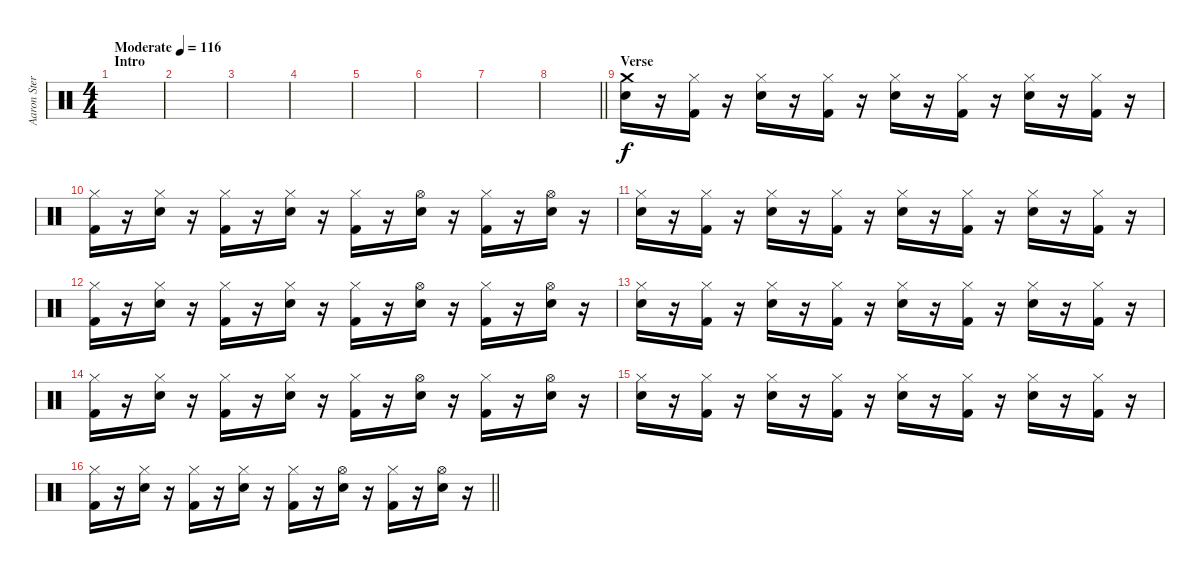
\track ("Aaron Stern" "Aaron Ster") {instrument percussion}
\staff {score}
\articulation defaults
\ts (4 4)
\section ("" "Intro")
\tempo (116 "Moderate")
\clef neutral
\ks c
|
|
|
|
|
|
|
\barLineRight lightlight
|
\section ("" "Verse")
("Crash medium (hit)" "Snare (hit) 2").16 r.16 ("Hi-Hat (closed)" "Kick (hit) 2").16 r.16 ("Hi-Hat (closed)" "Snare (hit) 2").16 r.16 ("Hi-Hat (closed)" "Kick (hit) 2").16 r.16 ("Hi-Hat (closed)" "Snare (hit) 2").16 r.16 ("Hi-Hat (closed)" "Kick (hit) 2").16 r.16 ("Hi-Hat (closed)" "Snare (hit) 2").16 r.16 ("Hi-Hat (closed)" "Kick (hit) 2").16 r.16 |
("Hi-Hat (closed)" "Kick (hit) 2").16 r.16 ("Hi-Hat (closed)" "Snare (hit) 2").16 r.16 ("Hi-Hat (closed)" "Kick (hit) 2").16 r.16 ("Hi-Hat (closed)" "Snare (hit) 2").16 r.16 ("Hi-Hat (closed)" "Kick (hit) 2").16 r.16 ("Hi-Hat (open)" "Snare (hit) 2").16 r.16 ("Hi-Hat (closed)" "Kick (hit) 2").16 r.16 ("Hi-Hat (open)" "Snare (hit) 2").16 r.16 |
("Hi-Hat (closed)" "Snare (hit) 2").16 r.16 ("Hi-Hat (closed)" "Kick (hit) 2").16 r.16 ("Hi-Hat (closed)" "Snare (hit) 2").16 r.16 ("Hi-Hat (closed)" "Kick (hit) 2").16 r.16 ("Hi-Hat (closed)" "Snare (hit) 2").16 r.16 ("Hi-Hat (closed)" "Kick (hit) 2").16 r.16 ("Hi-Hat (closed)" "Snare (hit) 2").16 r.16 ("Hi-Hat (closed)" "Kick (hit) 2").16 r.16 |
("Hi-Hat (closed)" "Kick (hit) 2").16 r.16 ("Hi-Hat (closed)" "Snare (hit) 2").16 r.16 ("Hi-Hat (closed)" "Kick (hit) 2").16 r.16 ("Hi-Hat (closed)" "Snare (hit) 2").16 r.16 ("Hi-Hat (closed)" "Kick (hit) 2").16 r.16 ("Hi-Hat (open)" "Snare (hit) 2").16 r.16 ("Hi-Hat (closed)" "Kick (hit) 2").16 r.16 ("Hi-Hat (open)" "Snare (hit) 2").16 r.16 |
("Hi-Hat (closed)" "Snare (hit) 2").16 r.16 ("Hi-Hat (closed)" "Kick (hit) 2").16 r.16 ("Hi-Hat (closed)" "Snare (hit) 2").16 r.16 ("Hi-Hat (closed)" "Kick (hit) 2").16 r.16 ("Hi-Hat (closed)" "Snare (hit) 2").16 r.16 ("Hi-Hat (closed)" "Kick (hit) 2").16 r.16 ("Hi-Hat (closed)" "Snare (hit) 2").16 r.16 ("Hi-Hat (closed)" "Kick (hit) 2").16 r.16 |
("Hi-Hat (closed)" "Kick (hit) 2").16 r.16 ("Hi-Hat (closed)" "Snare (hit) 2").16 r.16 ("Hi-Hat (closed)" "Kick (hit) 2").16 r.16 ("Hi-Hat (closed)" "Snare (hit) 2").16 r.16 ("Hi-Hat (closed)" "Kick (hit) 2").16 r.16 ("Hi-Hat (open)" "Snare (hit) 2").16 r.16 ("Hi-Hat (closed)" "Kick (hit) 2").16 r.16 ("Hi-Hat (open)" "Snare (hit) 2").16 r.16 |
("Hi-Hat (closed)" "Snare (hit) 2").16 r.16 ("Hi-Hat (closed)" "Kick (hit) 2").16 r.16 ("Hi-Hat (closed)" "Snare (hit) 2").16 r.16 ("Hi-Hat (closed)" "Kick (hit) 2").16 r.16 ("Hi-Hat (closed)" "Snare (hit) 2").16 r.16 ("Hi-Hat (closed)" "Kick (hit) 2").16 r.16 ("Hi-Hat (closed)" "Snare (hit) 2").16 r.16 ("Hi-Hat (closed)" "Kick (hit) 2").16 r.16 |
\barLineRight lightlight
("Hi-Hat (closed)" "Kick (hit) 2").16 r.16 ("Hi-Hat (closed)" "Snare (hit) 2").16 r.16 ("Hi-Hat (closed)" "Kick (hit) 2").16 r.16 ("Hi-Hat (closed)" "Snare (hit) 2").16 r.16 ("Hi-Hat (closed)" "Kick (hit) 2").16 r.16 ("Hi-Hat (open)" "Snare (hit) 2").16 r.16 ("Hi-Hat (closed)" "Kick (hit) 2").16 r.16 ("Hi-Hat (open)" "Snare (hit) 2").16 r.16
